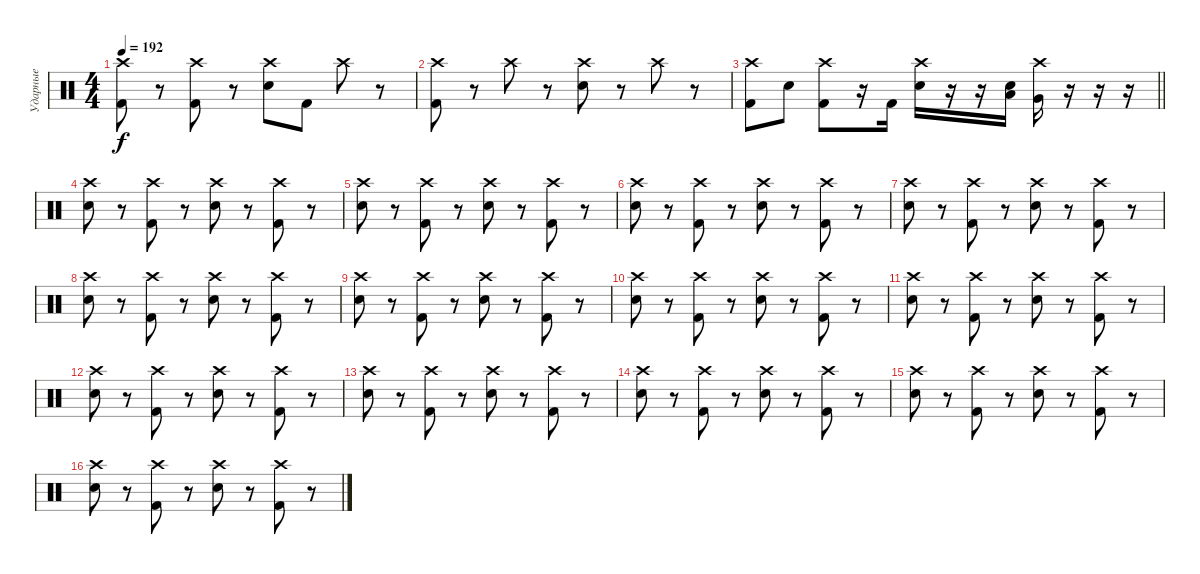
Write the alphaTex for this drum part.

\track ("Ударные" "Ударные") {instrument percussion}
\staff {score}
\articulation defaults
\ts (4 4)
\tempo 192
\clef neutral
\ks c
("Kick (hit) 2" "Crash high (hit)").8{dy f} r.8 ("Kick (hit) 2" "Crash high (hit)").8 r.8 ("Snare (hit) 2" "Crash high (hit)").8 "Kick (hit) 2".8 "Crash high (hit)".8 r.8 |
("Kick (hit) 2" "Crash high (hit)").8 r.8 "Crash high (hit)".8 r.8 ("Snare (hit) 2" "Crash high (hit)").8 r.8 "Crash high (hit)".8 r.8 |
\barLineRight lightlight
("Kick (hit) 2" "Crash high (hit)").8 "Snare (hit) 2".8 ("Kick (hit) 2" "Crash high (hit)").8 r.16 "Kick (hit) 2".16 ("Snare (hit) 2" "Crash high (hit)").16 r.16 r.16 ("Snare (hit) 2" "Low Tom (hit)").16 ("Very Low Tom (hit)" "Crash high (hit)").16 r.16 r.16 r.16 |
\section ("" "")
("Snare (hit) 2" "Crash high (hit)").8 r.8 ("Kick (hit) 2" "Crash high (hit)").8 r.8 ("Snare (hit) 2" "Crash high (hit)").8 r.8 ("Kick (hit) 2" "Crash high (hit)").8 r.8 |
("Snare (hit) 2" "Crash high (hit)").8 r.8 ("Kick (hit) 2" "Crash high (hit)").8 r.8 ("Snare (hit) 2" "Crash high (hit)").8 r.8 ("Kick (hit) 2" "Crash high (hit)").8 r.8 |
("Snare (hit) 2" "Crash high (hit)").8 r.8 ("Kick (hit) 2" "Crash high (hit)").8 r.8 ("Snare (hit) 2" "Crash high (hit)").8 r.8 ("Kick (hit) 2" "Crash high (hit)").8 r.8 |
("Snare (hit) 2" "Crash high (hit)").8 r.8 ("Kick (hit) 2" "Crash high (hit)").8 r.8 ("Snare (hit) 2" "Crash high (hit)").8 r.8 ("Kick (hit) 2" "Crash high (hit)").8 r.8 |
("Snare (hit) 2" "Crash high (hit)").8 r.8 ("Kick (hit) 2" "Crash high (hit)").8 r.8 ("Snare (hit) 2" "Crash high (hit)").8 r.8 ("Kick (hit) 2" "Crash high (hit)").8 r.8 |
("Snare (hit) 2" "Crash high (hit)").8 r.8 ("Kick (hit) 2" "Crash high (hit)").8 r.8 ("Snare (hit) 2" "Crash high (hit)").8 r.8 ("Kick (hit) 2" "Crash high (hit)").8 r.8 |
("Snare (hit) 2" "Crash high (hit)").8 r.8 ("Kick (hit) 2" "Crash high (hit)").8 r.8 ("Snare (hit) 2" "Crash high (hit)").8 r.8 ("Kick (hit) 2" "Crash high (hit)").8 r.8 |
("Snare (hit) 2" "Crash high (hit)").8 r.8 ("Kick (hit) 2" "Crash high (hit)").8 r.8 ("Snare (hit) 2" "Crash high (hit)").8 r.8 ("Kick (hit) 2" "Crash high (hit)").8 r.8 |
("Snare (hit) 2" "Crash high (hit)").8 r.8 ("Kick (hit) 2" "Crash high (hit)").8 r.8 ("Snare (hit) 2" "Crash high (hit)").8 r.8 ("Kick (hit) 2" "Crash high (hit)").8 r.8 |
("Snare (hit) 2" "Crash high (hit)").8 r.8 ("Kick (hit) 2" "Crash high (hit)").8 r.8 ("Snare (hit) 2" "Crash high (hit)").8 r.8 ("Kick (hit) 2" "Crash high (hit)").8 r.8 |
("Snare (hit) 2" "Crash high (hit)").8 r.8 ("Kick (hit) 2" "Crash high (hit)").8 r.8 ("Snare (hit) 2" "Crash high (hit)").8 r.8 ("Kick (hit) 2" "Crash high (hit)").8 r.8 |
("Snare (hit) 2" "Crash high (hit)").8 r.8 ("Kick (hit) 2" "Crash high (hit)").8 r.8 ("Snare (hit) 2" "Crash high (hit)").8 r.8 ("Kick (hit) 2" "Crash high (hit)").8 r.8 |
("Snare (hit) 2" "Crash high (hit)").8 r.8 ("Kick (hit) 2" "Crash high (hit)").8 r.8 ("Snare (hit) 2" "Crash high (hit)").8 r.8 ("Kick (hit) 2" "Crash high (hit)").8 r.8
